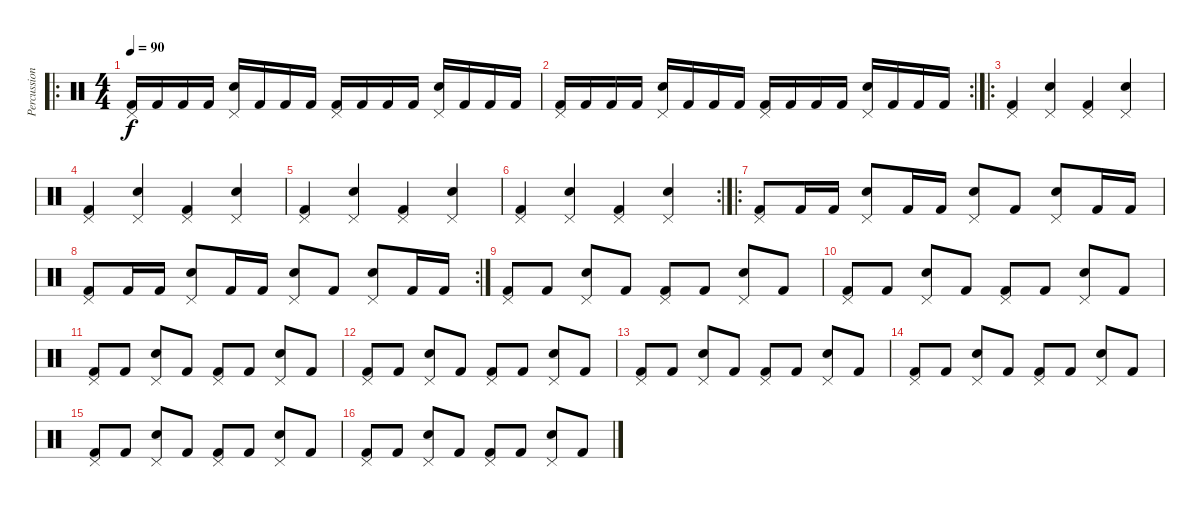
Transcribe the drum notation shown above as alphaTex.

\track ("Percussions" "Percussion") {instrument percussion}
\staff {score}
\articulation defaults
\ro
\ts (4 4)
\tempo 90
\clef neutral
\ks c
("Pedal Hi-Hat (hit)" "Kick (hit) 2").16{dy f} "Kick (hit) 2".16 "Kick (hit) 2".16 "Kick (hit) 2".16 ("Pedal Hi-Hat (hit)" "Snare (hit) 2").16 "Kick (hit) 2".16 "Kick (hit) 2".16 "Kick (hit) 2".16 ("Pedal Hi-Hat (hit)" "Kick (hit) 2").16 "Kick (hit) 2".16 "Kick (hit) 2".16 "Kick (hit) 2".16 ("Pedal Hi-Hat (hit)" "Snare (hit) 2").16 "Kick (hit) 2".16 "Kick (hit) 2".16 "Kick (hit) 2".16 |
\rc 2
("Pedal Hi-Hat (hit)" "Kick (hit) 2").16 "Kick (hit) 2".16 "Kick (hit) 2".16 "Kick (hit) 2".16 ("Pedal Hi-Hat (hit)" "Snare (hit) 2").16 "Kick (hit) 2".16 "Kick (hit) 2".16 "Kick (hit) 2".16 ("Pedal Hi-Hat (hit)" "Kick (hit) 2").16 "Kick (hit) 2".16 "Kick (hit) 2".16 "Kick (hit) 2".16 ("Pedal Hi-Hat (hit)" "Snare (hit) 2").16 "Kick (hit) 2".16 "Kick (hit) 2".16 "Kick (hit) 2".16 |
\ro
("Pedal Hi-Hat (hit)" "Kick (hit) 2").4 ("Pedal Hi-Hat (hit)" "Snare (hit) 2").4 ("Pedal Hi-Hat (hit)" "Kick (hit) 2").4 ("Pedal Hi-Hat (hit)" "Snare (hit) 2").4 |
("Pedal Hi-Hat (hit)" "Kick (hit) 2").4 ("Pedal Hi-Hat (hit)" "Snare (hit) 2").4 ("Pedal Hi-Hat (hit)" "Kick (hit) 2").4 ("Pedal Hi-Hat (hit)" "Snare (hit) 2").4 |
("Pedal Hi-Hat (hit)" "Kick (hit) 2").4 ("Pedal Hi-Hat (hit)" "Snare (hit) 2").4 ("Pedal Hi-Hat (hit)" "Kick (hit) 2").4 ("Pedal Hi-Hat (hit)" "Snare (hit) 2").4 |
\rc 2
("Pedal Hi-Hat (hit)" "Kick (hit) 2").4 ("Pedal Hi-Hat (hit)" "Snare (hit) 2").4 ("Pedal Hi-Hat (hit)" "Kick (hit) 2").4 ("Pedal Hi-Hat (hit)" "Snare (hit) 2").4 |
\ro
("Pedal Hi-Hat (hit)" "Kick (hit) 2").8 "Kick (hit) 2".16 "Kick (hit) 2".16 ("Pedal Hi-Hat (hit)" "Snare (hit) 2").8 "Kick (hit) 2".16 "Kick (hit) 2".16 ("Pedal Hi-Hat (hit)" "Snare (hit) 2").8 "Kick (hit) 2".8 ("Pedal Hi-Hat (hit)" "Snare (hit) 2").8 "Kick (hit) 2".16 "Kick (hit) 2".16 |
\rc 2
("Pedal Hi-Hat (hit)" "Kick (hit) 2").8 "Kick (hit) 2".16 "Kick (hit) 2".16 ("Pedal Hi-Hat (hit)" "Snare (hit) 2").8 "Kick (hit) 2".16 "Kick (hit) 2".16 ("Pedal Hi-Hat (hit)" "Snare (hit) 2").8 "Kick (hit) 2".8 ("Pedal Hi-Hat (hit)" "Snare (hit) 2").8 "Kick (hit) 2".16 "Kick (hit) 2".16 |
("Pedal Hi-Hat (hit)" "Kick (hit) 2").8 "Kick (hit) 2".8 ("Pedal Hi-Hat (hit)" "Snare (hit) 2").8 "Kick (hit) 2".8 ("Pedal Hi-Hat (hit)" "Kick (hit) 2").8 "Kick (hit) 2".8 ("Pedal Hi-Hat (hit)" "Snare (hit) 2").8 "Kick (hit) 2".8 |
("Pedal Hi-Hat (hit)" "Kick (hit) 2").8 "Kick (hit) 2".8 ("Pedal Hi-Hat (hit)" "Snare (hit) 2").8 "Kick (hit) 2".8 ("Pedal Hi-Hat (hit)" "Kick (hit) 2").8 "Kick (hit) 2".8 ("Pedal Hi-Hat (hit)" "Snare (hit) 2").8 "Kick (hit) 2".8 |
("Pedal Hi-Hat (hit)" "Kick (hit) 2").8 "Kick (hit) 2".8 ("Pedal Hi-Hat (hit)" "Snare (hit) 2").8 "Kick (hit) 2".8 ("Pedal Hi-Hat (hit)" "Kick (hit) 2").8 "Kick (hit) 2".8 ("Pedal Hi-Hat (hit)" "Snare (hit) 2").8 "Kick (hit) 2".8 |
("Pedal Hi-Hat (hit)" "Kick (hit) 2").8 "Kick (hit) 2".8 ("Pedal Hi-Hat (hit)" "Snare (hit) 2").8 "Kick (hit) 2".8 ("Pedal Hi-Hat (hit)" "Kick (hit) 2").8 "Kick (hit) 2".8 ("Pedal Hi-Hat (hit)" "Snare (hit) 2").8 "Kick (hit) 2".8 |
("Pedal Hi-Hat (hit)" "Kick (hit) 2").8 "Kick (hit) 2".8 ("Pedal Hi-Hat (hit)" "Snare (hit) 2").8 "Kick (hit) 2".8 ("Pedal Hi-Hat (hit)" "Kick (hit) 2").8 "Kick (hit) 2".8 ("Pedal Hi-Hat (hit)" "Snare (hit) 2").8 "Kick (hit) 2".8 |
("Pedal Hi-Hat (hit)" "Kick (hit) 2").8 "Kick (hit) 2".8 ("Pedal Hi-Hat (hit)" "Snare (hit) 2").8 "Kick (hit) 2".8 ("Pedal Hi-Hat (hit)" "Kick (hit) 2").8 "Kick (hit) 2".8 ("Pedal Hi-Hat (hit)" "Snare (hit) 2").8 "Kick (hit) 2".8 |
("Pedal Hi-Hat (hit)" "Kick (hit) 2").8 "Kick (hit) 2".8 ("Pedal Hi-Hat (hit)" "Snare (hit) 2").8 "Kick (hit) 2".8 ("Pedal Hi-Hat (hit)" "Kick (hit) 2").8 "Kick (hit) 2".8 ("Pedal Hi-Hat (hit)" "Snare (hit) 2").8 "Kick (hit) 2".8 |
("Pedal Hi-Hat (hit)" "Kick (hit) 2").8 "Kick (hit) 2".8 ("Pedal Hi-Hat (hit)" "Snare (hit) 2").8 "Kick (hit) 2".8 ("Pedal Hi-Hat (hit)" "Kick (hit) 2").8 "Kick (hit) 2".8 ("Pedal Hi-Hat (hit)" "Snare (hit) 2").8 "Kick (hit) 2".8
